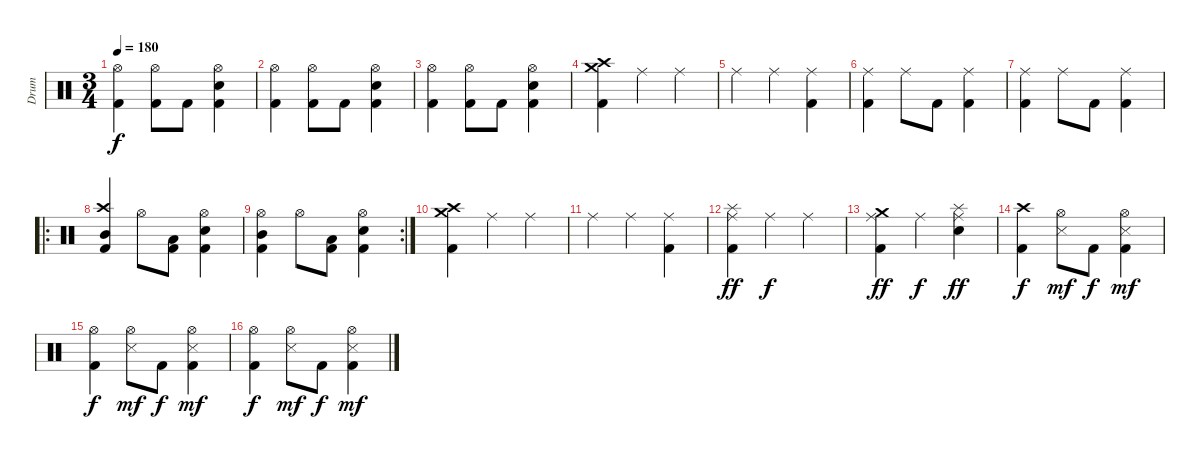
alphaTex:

\track ("Drum" "Drum") {instrument percussion}
\staff {score}
\articulation defaults
\ts (3 4)
\tempo 180
\clef neutral
\ks c
("Hi-Hat (open)" "Kick (hit) 2").4{dy f} ("Hi-Hat (open)" "Kick (hit) 2").8 "Kick (hit) 2".8 ("Hi-Hat (open)" "Electric Snare (hit)" "Kick (hit) 2").4 |
("Hi-Hat (open)" "Kick (hit) 2").4 ("Hi-Hat (open)" "Kick (hit) 2").8 "Kick (hit) 2".8 ("Hi-Hat (open)" "Electric Snare (hit)" "Kick (hit) 2").4 |
("Hi-Hat (open)" "Kick (hit) 2").4 ("Hi-Hat (open)" "Kick (hit) 2").8 "Kick (hit) 2".8 ("Hi-Hat (open)" "Electric Snare (hit)" "Kick (hit) 2").4 |
("Crash high (hit)" "Crash medium (hit)" "Kick (hit) 2").4 "Ride (middle)".4 "Ride (middle)".4 |
"Ride (middle)".4 "Ride (middle)".4 ("Ride (middle)" "Kick (hit) 2").4 |
("Ride (middle)" "Kick (hit) 2").4 "Ride (middle)".8 "Kick (hit) 2".8 ("Ride (middle)" "Kick (hit) 2").4 |
("Ride (middle)" "Kick (hit) 2").4 "Ride (middle)".8 "Kick (hit) 2".8 ("Ride (middle)" "Kick (hit) 2").4 |
\ro
("Crash high (hit)" "Mid Tom (hit)" "Kick (hit) 2").4 "Hi-Hat (open)".8 ("Low Tom (hit)" "Kick (hit) 2").8 ("Hi-Hat (open)" "Electric Snare (hit)" "Kick (hit) 2").4 |
\rc 2
("Hi-Hat (open)" "Mid Tom (hit)" "Kick (hit) 2").4 "Hi-Hat (open)".8 ("Low Tom (hit)" "Kick (hit) 2").8 ("Hi-Hat (open)" "Electric Snare (hit)" "Kick (hit) 2").4 |
("Crash high (hit)" "Crash medium (hit)" "Kick (hit) 2").4 "Ride (middle)".4 "Ride (middle)".4 |
"Ride (middle)".4 "Ride (middle)".4 ("Ride (middle)" "Kick (hit) 2").4 |
("Splash (hit)" "Ride (middle)" "Kick (hit) 2").4{dy ff} "Ride (middle)".4{dy f} "Ride (middle)".4 |
("Crash medium (hit)" "Ride (middle)" "Kick (hit) 2").4{dy ff} "Ride (middle)".4{dy f} ("Splash (hit)" "Ride (middle)" "Electric Snare (hit)").4{dy ff} |
("Crash high (hit)" "Kick (hit) 2").4{dy f} ("Hi-Hat (open)" "Snare (side stick) 3").8{dy mf} "Kick (hit) 2".8{dy f} ("Hi-Hat (open)" "Snare (side stick) 3" "Kick (hit) 2").4{dy mf} |
("Hi-Hat (open)" "Kick (hit) 2").4{dy f} ("Hi-Hat (open)" "Snare (side stick) 3").8{dy mf} "Kick (hit) 2".8{dy f} ("Hi-Hat (open)" "Snare (side stick) 3" "Kick (hit) 2").4{dy mf} |
("Hi-Hat (open)" "Kick (hit) 2").4{dy f} ("Hi-Hat (open)" "Snare (side stick) 3").8{dy mf} "Kick (hit) 2".8{dy f} ("Hi-Hat (open)" "Snare (side stick) 3" "Kick (hit) 2").4{dy mf}
